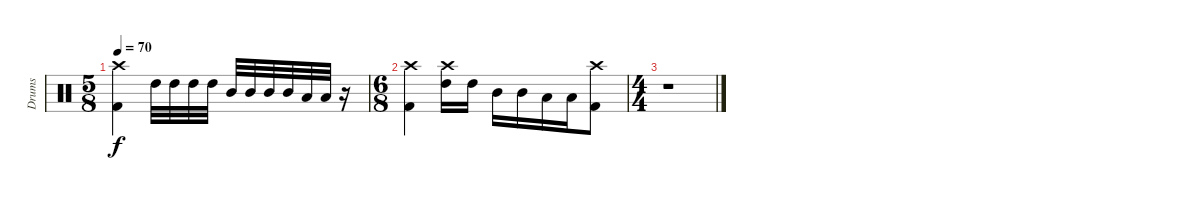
\track ("Drums" "Drums") {instrument percussion}
\staff {score}
\articulation defaults
\ts (5 8)
\tempo 70
\clef neutral
\ks c
("Crash high (hit)" "Kick (hit) 2").4{dy f} "High Tom (hit)".32 "High Tom (hit)".32 "High Tom (hit)".32 "High Tom (hit)".32 "Mid Tom (hit)".32 "Mid Tom (hit)".32 "Mid Tom (hit)".32 "Mid Tom (hit)".32 "Low Tom (hit)".32 "Low Tom (hit)".32 r.16 |
\ts (6 8)
("Crash high (hit)" "Kick (hit) 2").4 ("Crash high (hit)" "High Tom (hit)").16 "High Tom (hit)".16 "Mid Tom (hit)".16 "Mid Tom (hit)".16 "Low Tom (hit)".16 "Low Tom (hit)".16 ("Crash high (hit)" "Kick (hit) 2").8 |
\ts (4 4)
r.1
